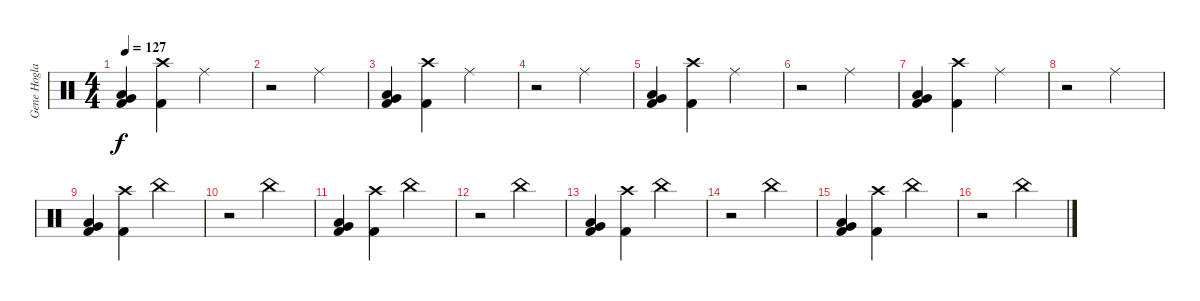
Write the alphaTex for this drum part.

\track ("Gene Hoglan" "Gene Hogla") {instrument percussion}
\staff {score}
\articulation defaults
\ts (4 4)
\tempo 127
\clef neutral
\ks c
("Very Low Tom (hit)" "Low Floor Tom (hit)" "Kick (hit) 2").4{dy f} ("Crash high (hit)" "Kick (hit) 2").4 "Ride (middle)".2 |
r.2 "Ride (middle)".2 |
("Very Low Tom (hit)" "Low Floor Tom (hit)" "Kick (hit) 2").4 ("Crash high (hit)" "Kick (hit) 2").4 "Ride (middle)".2 |
r.2 "Ride (middle)".2 |
("Very Low Tom (hit)" "Low Floor Tom (hit)" "Kick (hit) 2").4 ("Crash high (hit)" "Kick (hit) 2").4 "Ride (middle)".2 |
r.2 "Ride (middle)".2 |
("Very Low Tom (hit)" "Low Floor Tom (hit)" "Kick (hit) 2").4 ("Crash high (hit)" "Kick (hit) 2").4 "Ride (middle)".2 |
r.2 "Ride (middle)".2 |
("Very Low Tom (hit)" "Low Floor Tom (hit)" "Kick (hit) 2").4 ("Crash high (hit)" "Kick (hit) 2").4 "China (hit)".2 |
r.2 "China (hit)".2 |
("Very Low Tom (hit)" "Low Floor Tom (hit)" "Kick (hit) 2").4 ("Crash high (hit)" "Kick (hit) 2").4 "China (hit)".2 |
r.2 "China (hit)".2 |
("Very Low Tom (hit)" "Low Floor Tom (hit)" "Kick (hit) 2").4 ("Crash high (hit)" "Kick (hit) 2").4 "China (hit)".2 |
r.2 "China (hit)".2 |
("Very Low Tom (hit)" "Low Floor Tom (hit)" "Kick (hit) 2").4 ("Crash high (hit)" "Kick (hit) 2").4 "China (hit)".2 |
r.2 "China (hit)".2
